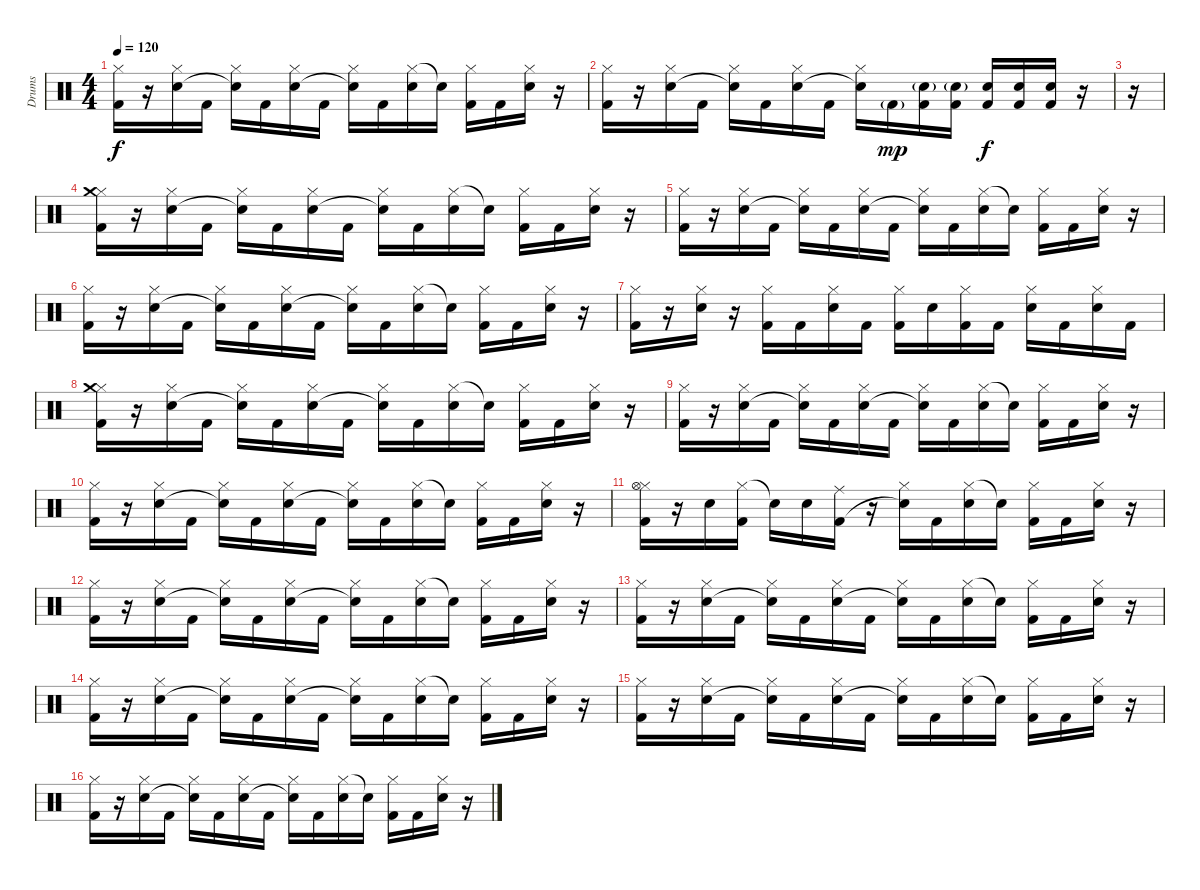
\track ("Drums" "Drums") {instrument percussion}
\staff {score}
\articulation defaults
\ts (4 4)
\tempo 120
\clef neutral
\ks c
("Hi-Hat (closed)" "Kick (hit) 2").16{dy f} r.16 ("Hi-Hat (closed)" "Electric Snare (hit)").16 "Kick (hit) 2".16 ("Hi-Hat (closed)" "Snare (hit)"{t}).16 "Kick (hit) 2".16 ("Hi-Hat (closed)" "Electric Snare (hit)").16 "Kick (hit) 2".16 ("Hi-Hat (closed)" "Snare (hit)"{t}).16 "Kick (hit) 2".16 ("Hi-Hat (closed)" "Electric Snare (hit)").16 "Snare (hit)"{t}.16 ("Hi-Hat (closed)" "Kick (hit) 2").16 "Kick (hit) 2".16 ("Hi-Hat (closed)" "Electric Snare (hit)").16 r.16 |
("Hi-Hat (closed)" "Kick (hit) 2").16 r.16 ("Hi-Hat (closed)" "Electric Snare (hit)").16 "Kick (hit) 2".16 ("Hi-Hat (closed)" "Snare (hit)"{t}).16 "Kick (hit) 2".16 ("Hi-Hat (closed)" "Electric Snare (hit)").16 "Kick (hit) 2".16 ("Hi-Hat (closed)" "Snare (hit)"{t}).16 "Kick (hit) 2"{g}.16{dy mp} ("Electric Snare (hit)"{g} "Kick (hit) 2").16 ("Electric Snare (hit)"{g} "Kick (hit) 2").16 ("Electric Snare (hit)" "Kick (hit) 2").16{dy f} ("Electric Snare (hit)" "Kick (hit) 2").16 ("Electric Snare (hit)" "Kick (hit) 2").16 r.16 |
r.16 |
("Hi-Hat (closed)" "Crash medium (hit)" "Kick (hit) 2").16 r.16 ("Hi-Hat (closed)" "Electric Snare (hit)").16 "Kick (hit) 2".16 ("Hi-Hat (closed)" "Snare (hit)"{t}).16 "Kick (hit) 2".16 ("Hi-Hat (closed)" "Electric Snare (hit)").16 "Kick (hit) 2".16 ("Hi-Hat (closed)" "Snare (hit)"{t}).16 "Kick (hit) 2".16 ("Hi-Hat (closed)" "Electric Snare (hit)").16 "Snare (hit)"{t}.16 ("Hi-Hat (closed)" "Kick (hit) 2").16 "Kick (hit) 2".16 ("Hi-Hat (closed)" "Electric Snare (hit)").16 r.16 |
("Hi-Hat (closed)" "Kick (hit) 2").16 r.16 ("Hi-Hat (closed)" "Electric Snare (hit)").16 "Kick (hit) 2".16 ("Hi-Hat (closed)" "Snare (hit)"{t}).16 "Kick (hit) 2".16 ("Hi-Hat (closed)" "Electric Snare (hit)").16 "Kick (hit) 2".16 ("Hi-Hat (closed)" "Snare (hit)"{t}).16 "Kick (hit) 2".16 ("Hi-Hat (closed)" "Electric Snare (hit)").16 "Snare (hit)"{t}.16 ("Hi-Hat (closed)" "Kick (hit) 2").16 "Kick (hit) 2".16 ("Hi-Hat (closed)" "Electric Snare (hit)").16 r.16 |
("Hi-Hat (closed)" "Kick (hit) 2").16 r.16 ("Hi-Hat (closed)" "Electric Snare (hit)").16 "Kick (hit) 2".16 ("Hi-Hat (closed)" "Snare (hit)"{t}).16 "Kick (hit) 2".16 ("Hi-Hat (closed)" "Electric Snare (hit)").16 "Kick (hit) 2".16 ("Hi-Hat (closed)" "Snare (hit)"{t}).16 "Kick (hit) 2".16 ("Hi-Hat (closed)" "Electric Snare (hit)").16 "Snare (hit)"{t}.16 ("Hi-Hat (closed)" "Kick (hit) 2").16 "Kick (hit) 2".16 ("Hi-Hat (closed)" "Electric Snare (hit)").16 r.16 |
("Hi-Hat (closed)" "Kick (hit) 2").16 r.16 ("Hi-Hat (closed)" "Electric Snare (hit)").16 r.16 ("Hi-Hat (closed)" "Kick (hit) 2").16 "Kick (hit) 2".16 ("Hi-Hat (closed)" "Electric Snare (hit)").16 "Kick (hit) 2".16 ("Hi-Hat (closed)" "Kick (hit) 2").16 "Electric Snare (hit)".16 ("Hi-Hat (closed)" "Kick (hit) 2").16 "Kick (hit) 2".16 ("Hi-Hat (closed)" "Electric Snare (hit)").16 "Kick (hit) 2".16 ("Hi-Hat (closed)" "Electric Snare (hit)").16 "Kick (hit) 2".16 |
("Hi-Hat (closed)" "Crash medium (hit)" "Kick (hit) 2").16 r.16 ("Hi-Hat (closed)" "Electric Snare (hit)").16 "Kick (hit) 2".16 ("Hi-Hat (closed)" "Snare (hit)"{t}).16 "Kick (hit) 2".16 ("Hi-Hat (closed)" "Electric Snare (hit)").16 "Kick (hit) 2".16 ("Hi-Hat (closed)" "Snare (hit)"{t}).16 "Kick (hit) 2".16 ("Hi-Hat (closed)" "Electric Snare (hit)").16 "Snare (hit)"{t}.16 ("Hi-Hat (closed)" "Kick (hit) 2").16 "Kick (hit) 2".16 ("Hi-Hat (closed)" "Electric Snare (hit)").16 r.16 |
("Hi-Hat (closed)" "Kick (hit) 2").16 r.16 ("Hi-Hat (closed)" "Electric Snare (hit)").16 "Kick (hit) 2".16 ("Hi-Hat (closed)" "Snare (hit)"{t}).16 "Kick (hit) 2".16 ("Hi-Hat (closed)" "Electric Snare (hit)").16 "Kick (hit) 2".16 ("Hi-Hat (closed)" "Snare (hit)"{t}).16 "Kick (hit) 2".16 ("Hi-Hat (closed)" "Electric Snare (hit)").16 "Snare (hit)"{t}.16 ("Hi-Hat (closed)" "Kick (hit) 2").16 "Kick (hit) 2".16 ("Hi-Hat (closed)" "Electric Snare (hit)").16 r.16 |
("Hi-Hat (closed)" "Kick (hit) 2").16 r.16 ("Hi-Hat (closed)" "Electric Snare (hit)").16 "Kick (hit) 2".16 ("Hi-Hat (closed)" "Snare (hit)"{t}).16 "Kick (hit) 2".16 ("Hi-Hat (closed)" "Electric Snare (hit)").16 "Kick (hit) 2".16 ("Hi-Hat (closed)" "Snare (hit)"{t}).16 "Kick (hit) 2".16 ("Hi-Hat (closed)" "Electric Snare (hit)").16 "Snare (hit)"{t}.16 ("Hi-Hat (closed)" "Kick (hit) 2").16 "Kick (hit) 2".16 ("Hi-Hat (closed)" "Electric Snare (hit)").16 r.16 |
("Hi-Hat (closed)" "Hi-Hat (open)" "Kick (hit) 2").16 r.16 "Electric Snare (hit)".16 ("Hi-Hat (closed)" "Kick (hit) 2").16 "Snare (hit)"{t}.16 "Electric Snare (hit)".16 ("Ride (middle)" "Kick (hit) 2").16 r.16 ("Hi-Hat (closed)" "Snare (hit)"{t}).16 "Kick (hit) 2".16 ("Hi-Hat (closed)" "Electric Snare (hit)").16 "Snare (hit)"{t}.16 ("Hi-Hat (closed)" "Kick (hit) 2").16 "Kick (hit) 2".16 ("Hi-Hat (closed)" "Electric Snare (hit)").16 r.16 |
("Hi-Hat (closed)" "Kick (hit) 2").16 r.16 ("Hi-Hat (closed)" "Electric Snare (hit)").16 "Kick (hit) 2".16 ("Hi-Hat (closed)" "Snare (hit)"{t}).16 "Kick (hit) 2".16 ("Hi-Hat (closed)" "Electric Snare (hit)").16 "Kick (hit) 2".16 ("Hi-Hat (closed)" "Snare (hit)"{t}).16 "Kick (hit) 2".16 ("Hi-Hat (closed)" "Electric Snare (hit)").16 "Snare (hit)"{t}.16 ("Hi-Hat (closed)" "Kick (hit) 2").16 "Kick (hit) 2".16 ("Hi-Hat (closed)" "Electric Snare (hit)").16 r.16 |
("Hi-Hat (closed)" "Kick (hit) 2").16 r.16 ("Hi-Hat (closed)" "Electric Snare (hit)").16 "Kick (hit) 2".16 ("Hi-Hat (closed)" "Snare (hit)"{t}).16 "Kick (hit) 2".16 ("Hi-Hat (closed)" "Electric Snare (hit)").16 "Kick (hit) 2".16 ("Hi-Hat (closed)" "Snare (hit)"{t}).16 "Kick (hit) 2".16 ("Hi-Hat (closed)" "Electric Snare (hit)").16 "Snare (hit)"{t}.16 ("Hi-Hat (closed)" "Kick (hit) 2").16 "Kick (hit) 2".16 ("Hi-Hat (closed)" "Electric Snare (hit)").16 r.16 |
("Hi-Hat (closed)" "Kick (hit) 2").16 r.16 ("Hi-Hat (closed)" "Electric Snare (hit)").16 "Kick (hit) 2".16 ("Hi-Hat (closed)" "Snare (hit)"{t}).16 "Kick (hit) 2".16 ("Hi-Hat (closed)" "Electric Snare (hit)").16 "Kick (hit) 2".16 ("Hi-Hat (closed)" "Snare (hit)"{t}).16 "Kick (hit) 2".16 ("Hi-Hat (closed)" "Electric Snare (hit)").16 "Snare (hit)"{t}.16 ("Hi-Hat (closed)" "Kick (hit) 2").16 "Kick (hit) 2".16 ("Hi-Hat (closed)" "Electric Snare (hit)").16 r.16 |
("Hi-Hat (closed)" "Kick (hit) 2").16 r.16 ("Hi-Hat (closed)" "Electric Snare (hit)").16 "Kick (hit) 2".16 ("Hi-Hat (closed)" "Snare (hit)"{t}).16 "Kick (hit) 2".16 ("Hi-Hat (closed)" "Electric Snare (hit)").16 "Kick (hit) 2".16 ("Hi-Hat (closed)" "Snare (hit)"{t}).16 "Kick (hit) 2".16 ("Hi-Hat (closed)" "Electric Snare (hit)").16 "Snare (hit)"{t}.16 ("Hi-Hat (closed)" "Kick (hit) 2").16 "Kick (hit) 2".16 ("Hi-Hat (closed)" "Electric Snare (hit)").16 r.16 |
("Hi-Hat (closed)" "Kick (hit) 2").16 r.16 ("Hi-Hat (closed)" "Electric Snare (hit)").16 "Kick (hit) 2".16 ("Hi-Hat (closed)" "Snare (hit)"{t}).16 "Kick (hit) 2".16 ("Hi-Hat (closed)" "Electric Snare (hit)").16 "Kick (hit) 2".16 ("Hi-Hat (closed)" "Snare (hit)"{t}).16 "Kick (hit) 2".16 ("Hi-Hat (closed)" "Electric Snare (hit)").16 "Snare (hit)"{t}.16 ("Hi-Hat (closed)" "Kick (hit) 2").16 "Kick (hit) 2".16 ("Hi-Hat (closed)" "Electric Snare (hit)").16 r.16
